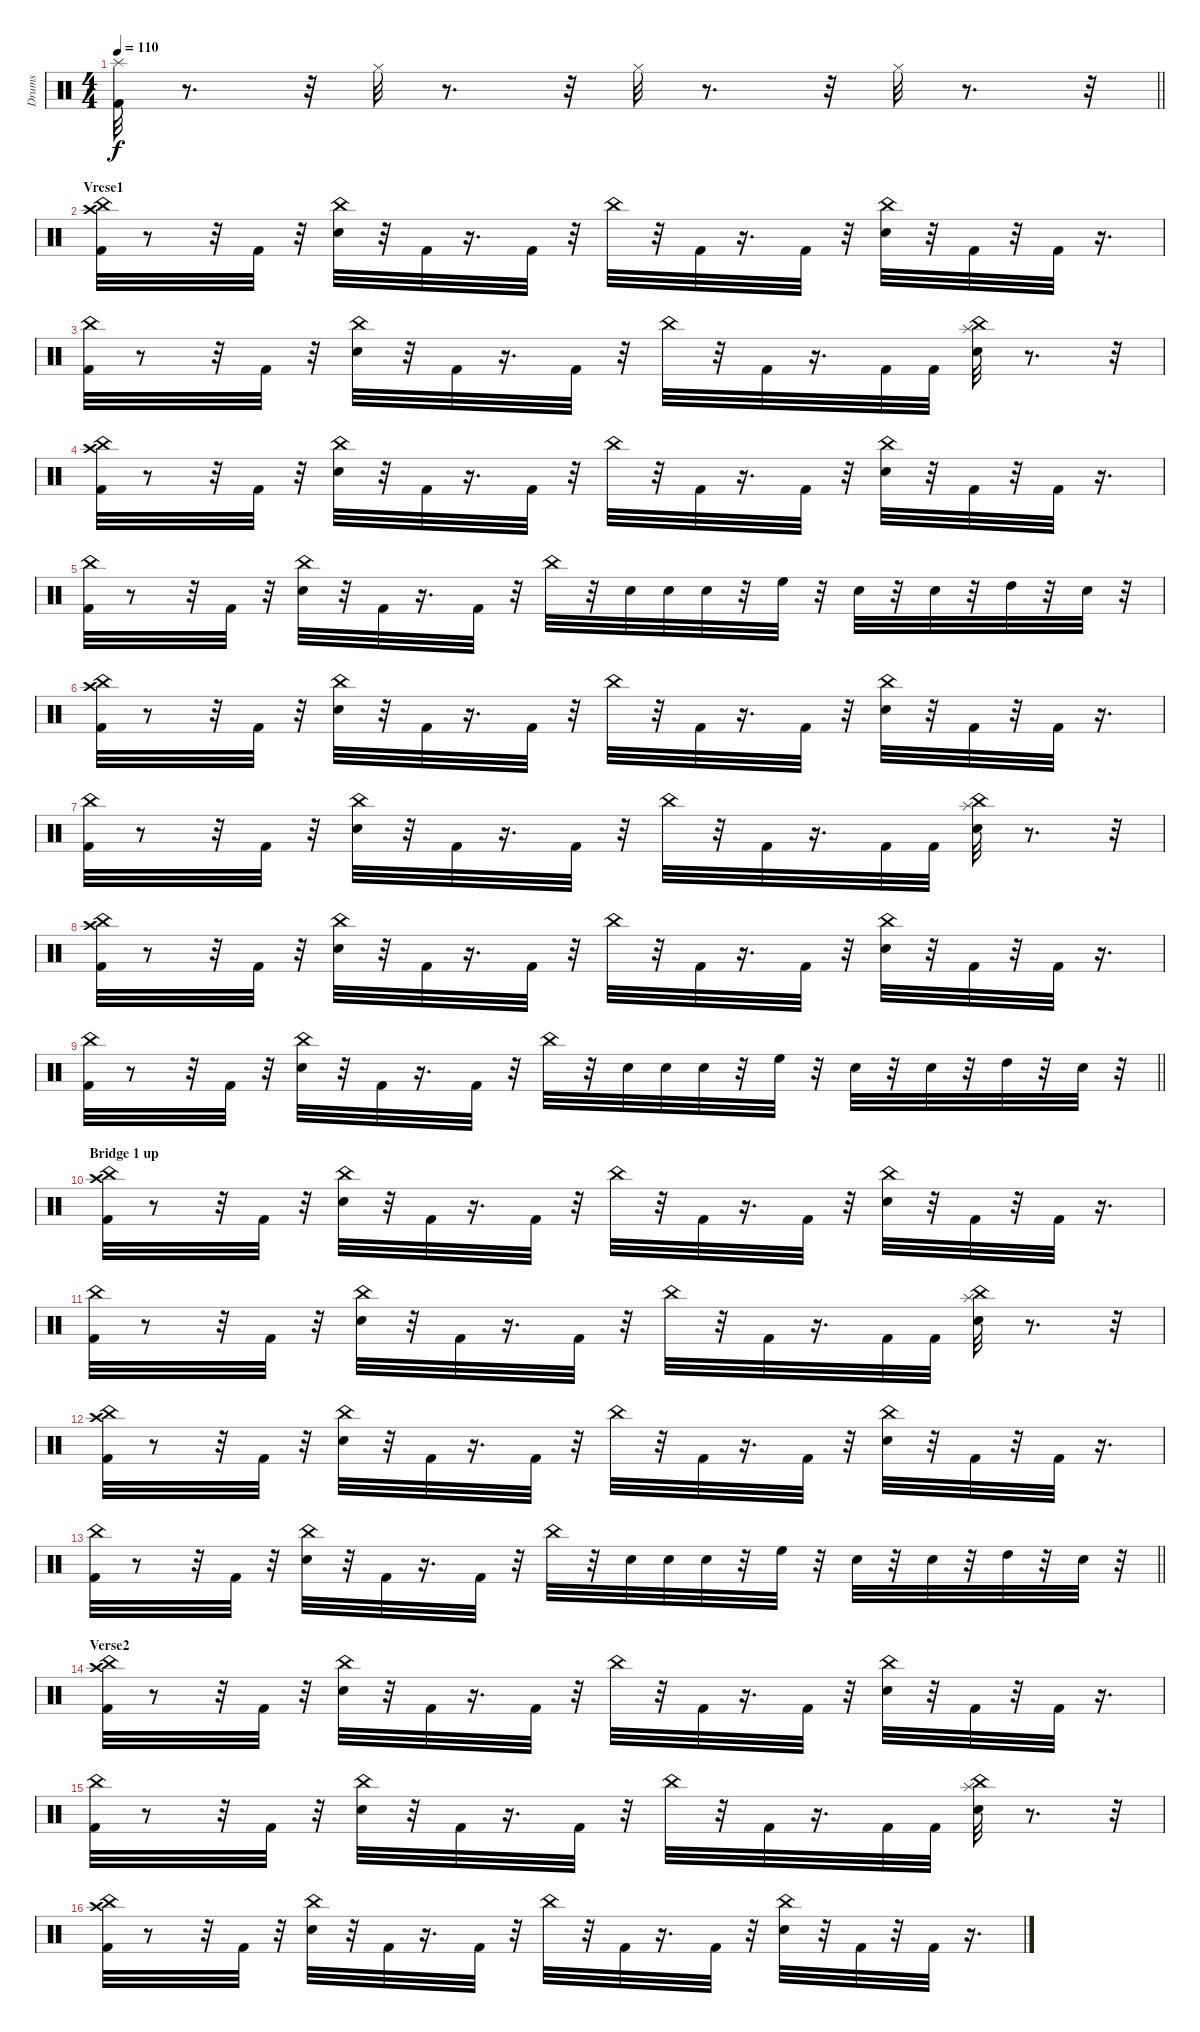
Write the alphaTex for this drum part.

\track ("Drums" "Drums") {instrument percussion}
\staff {score}
\articulation defaults
\ts (4 4)
\tempo 110
\clef neutral
\barLineRight lightlight
\ks c
("Kick (hit) 2" "Splash (hit)").32{dy f} r.8{d} r.32 "Hi-Hat (closed)".32 r.8{d} r.32 "Hi-Hat (closed)".32 r.8{d} r.32 "Hi-Hat (closed)".32 r.8{d} r.32 |
\section ("" "Vrese1")
("Kick (hit) 2" "Crash high (hit)" "China (hit)").32 r.8 r.32 "Kick (hit) 2".32 r.32 ("Snare (hit) 2" "China (hit)").32 r.32 "Kick (hit) 2".32 r.16{d} "Kick (hit) 2".32 r.32 "China (hit)".32 r.32 "Kick (hit) 2".32 r.16{d} "Kick (hit) 2".32 r.32 ("Snare (hit) 2" "China (hit)").32 r.32 "Kick (hit) 2".32 r.32 "Kick (hit) 2".32 r.16{d} |
("Kick (hit) 2" "China (hit)").32 r.8 r.32 "Kick (hit) 2".32 r.32 ("Snare (hit) 2" "China (hit)").32 r.32 "Kick (hit) 2".32 r.16{d} "Kick (hit) 2".32 r.32 "China (hit)".32 r.32 "Kick (hit) 2".32 r.16{d} "Kick (hit) 2".32 "Kick (hit) 2".32 ("Snare (hit) 2" "China (hit)" "Splash (hit)").32 r.8{d} r.32 |
("Kick (hit) 2" "Crash high (hit)" "China (hit)").32 r.8 r.32 "Kick (hit) 2".32 r.32 ("Snare (hit) 2" "China (hit)").32 r.32 "Kick (hit) 2".32 r.16{d} "Kick (hit) 2".32 r.32 "China (hit)".32 r.32 "Kick (hit) 2".32 r.16{d} "Kick (hit) 2".32 r.32 ("Snare (hit) 2" "China (hit)").32 r.32 "Kick (hit) 2".32 r.32 "Kick (hit) 2".32 r.16{d} |
("Kick (hit) 2" "China (hit)").32 r.8 r.32 "Kick (hit) 2".32 r.32 ("Snare (hit) 2" "China (hit)").32 r.32 "Kick (hit) 2".32 r.16{d} "Kick (hit) 2".32 r.32 "China (hit)".32 r.32 "Snare (hit) 2".32 "Snare (hit) 2".32 "Snare (hit) 2".32 r.32 "High Floor Tom (hit)".32 r.32 "Snare (hit) 2".32 r.32 "Snare (hit) 2".32 r.32 "High Tom (hit)".32 r.32 "Snare (hit) 2".32 r.32 |
("Kick (hit) 2" "Crash high (hit)" "China (hit)").32 r.8 r.32 "Kick (hit) 2".32 r.32 ("Snare (hit) 2" "China (hit)").32 r.32 "Kick (hit) 2".32 r.16{d} "Kick (hit) 2".32 r.32 "China (hit)".32 r.32 "Kick (hit) 2".32 r.16{d} "Kick (hit) 2".32 r.32 ("Snare (hit) 2" "China (hit)").32 r.32 "Kick (hit) 2".32 r.32 "Kick (hit) 2".32 r.16{d} |
("Kick (hit) 2" "China (hit)").32 r.8 r.32 "Kick (hit) 2".32 r.32 ("Snare (hit) 2" "China (hit)").32 r.32 "Kick (hit) 2".32 r.16{d} "Kick (hit) 2".32 r.32 "China (hit)".32 r.32 "Kick (hit) 2".32 r.16{d} "Kick (hit) 2".32 "Kick (hit) 2".32 ("Snare (hit) 2" "China (hit)" "Splash (hit)").32 r.8{d} r.32 |
("Kick (hit) 2" "Crash high (hit)" "China (hit)").32 r.8 r.32 "Kick (hit) 2".32 r.32 ("Snare (hit) 2" "China (hit)").32 r.32 "Kick (hit) 2".32 r.16{d} "Kick (hit) 2".32 r.32 "China (hit)".32 r.32 "Kick (hit) 2".32 r.16{d} "Kick (hit) 2".32 r.32 ("Snare (hit) 2" "China (hit)").32 r.32 "Kick (hit) 2".32 r.32 "Kick (hit) 2".32 r.16{d} |
\barLineRight lightlight
("Kick (hit) 2" "China (hit)").32 r.8 r.32 "Kick (hit) 2".32 r.32 ("Snare (hit) 2" "China (hit)").32 r.32 "Kick (hit) 2".32 r.16{d} "Kick (hit) 2".32 r.32 "China (hit)".32 r.32 "Snare (hit) 2".32 "Snare (hit) 2".32 "Snare (hit) 2".32 r.32 "High Floor Tom (hit)".32 r.32 "Snare (hit) 2".32 r.32 "Snare (hit) 2".32 r.32 "High Tom (hit)".32 r.32 "Snare (hit) 2".32 r.32 |
\section ("" "Bridge 1 up")
("Kick (hit) 2" "Crash high (hit)" "China (hit)").32 r.8 r.32 "Kick (hit) 2".32 r.32 ("Snare (hit) 2" "China (hit)").32 r.32 "Kick (hit) 2".32 r.16{d} "Kick (hit) 2".32 r.32 "China (hit)".32 r.32 "Kick (hit) 2".32 r.16{d} "Kick (hit) 2".32 r.32 ("Snare (hit) 2" "China (hit)").32 r.32 "Kick (hit) 2".32 r.32 "Kick (hit) 2".32 r.16{d} |
("Kick (hit) 2" "China (hit)").32 r.8 r.32 "Kick (hit) 2".32 r.32 ("Snare (hit) 2" "China (hit)").32 r.32 "Kick (hit) 2".32 r.16{d} "Kick (hit) 2".32 r.32 "China (hit)".32 r.32 "Kick (hit) 2".32 r.16{d} "Kick (hit) 2".32 "Kick (hit) 2".32 ("Snare (hit) 2" "China (hit)" "Splash (hit)").32 r.8{d} r.32 |
("Kick (hit) 2" "Crash high (hit)" "China (hit)").32 r.8 r.32 "Kick (hit) 2".32 r.32 ("Snare (hit) 2" "China (hit)").32 r.32 "Kick (hit) 2".32 r.16{d} "Kick (hit) 2".32 r.32 "China (hit)".32 r.32 "Kick (hit) 2".32 r.16{d} "Kick (hit) 2".32 r.32 ("Snare (hit) 2" "China (hit)").32 r.32 "Kick (hit) 2".32 r.32 "Kick (hit) 2".32 r.16{d} |
\barLineRight lightlight
("Kick (hit) 2" "China (hit)").32 r.8 r.32 "Kick (hit) 2".32 r.32 ("Snare (hit) 2" "China (hit)").32 r.32 "Kick (hit) 2".32 r.16{d} "Kick (hit) 2".32 r.32 "China (hit)".32 r.32 "Snare (hit) 2".32 "Snare (hit) 2".32 "Snare (hit) 2".32 r.32 "High Floor Tom (hit)".32 r.32 "Snare (hit) 2".32 r.32 "Snare (hit) 2".32 r.32 "High Tom (hit)".32 r.32 "Snare (hit) 2".32 r.32 |
\section ("" "Verse2")
("Kick (hit) 2" "Crash high (hit)" "China (hit)").32 r.8 r.32 "Kick (hit) 2".32 r.32 ("Snare (hit) 2" "China (hit)").32 r.32 "Kick (hit) 2".32 r.16{d} "Kick (hit) 2".32 r.32 "China (hit)".32 r.32 "Kick (hit) 2".32 r.16{d} "Kick (hit) 2".32 r.32 ("Snare (hit) 2" "China (hit)").32 r.32 "Kick (hit) 2".32 r.32 "Kick (hit) 2".32 r.16{d} |
("Kick (hit) 2" "China (hit)").32 r.8 r.32 "Kick (hit) 2".32 r.32 ("Snare (hit) 2" "China (hit)").32 r.32 "Kick (hit) 2".32 r.16{d} "Kick (hit) 2".32 r.32 "China (hit)".32 r.32 "Kick (hit) 2".32 r.16{d} "Kick (hit) 2".32 "Kick (hit) 2".32 ("Snare (hit) 2" "China (hit)" "Splash (hit)").32 r.8{d} r.32 |
("Kick (hit) 2" "Crash high (hit)" "China (hit)").32 r.8 r.32 "Kick (hit) 2".32 r.32 ("Snare (hit) 2" "China (hit)").32 r.32 "Kick (hit) 2".32 r.16{d} "Kick (hit) 2".32 r.32 "China (hit)".32 r.32 "Kick (hit) 2".32 r.16{d} "Kick (hit) 2".32 r.32 ("Snare (hit) 2" "China (hit)").32 r.32 "Kick (hit) 2".32 r.32 "Kick (hit) 2".32 r.16{d}
